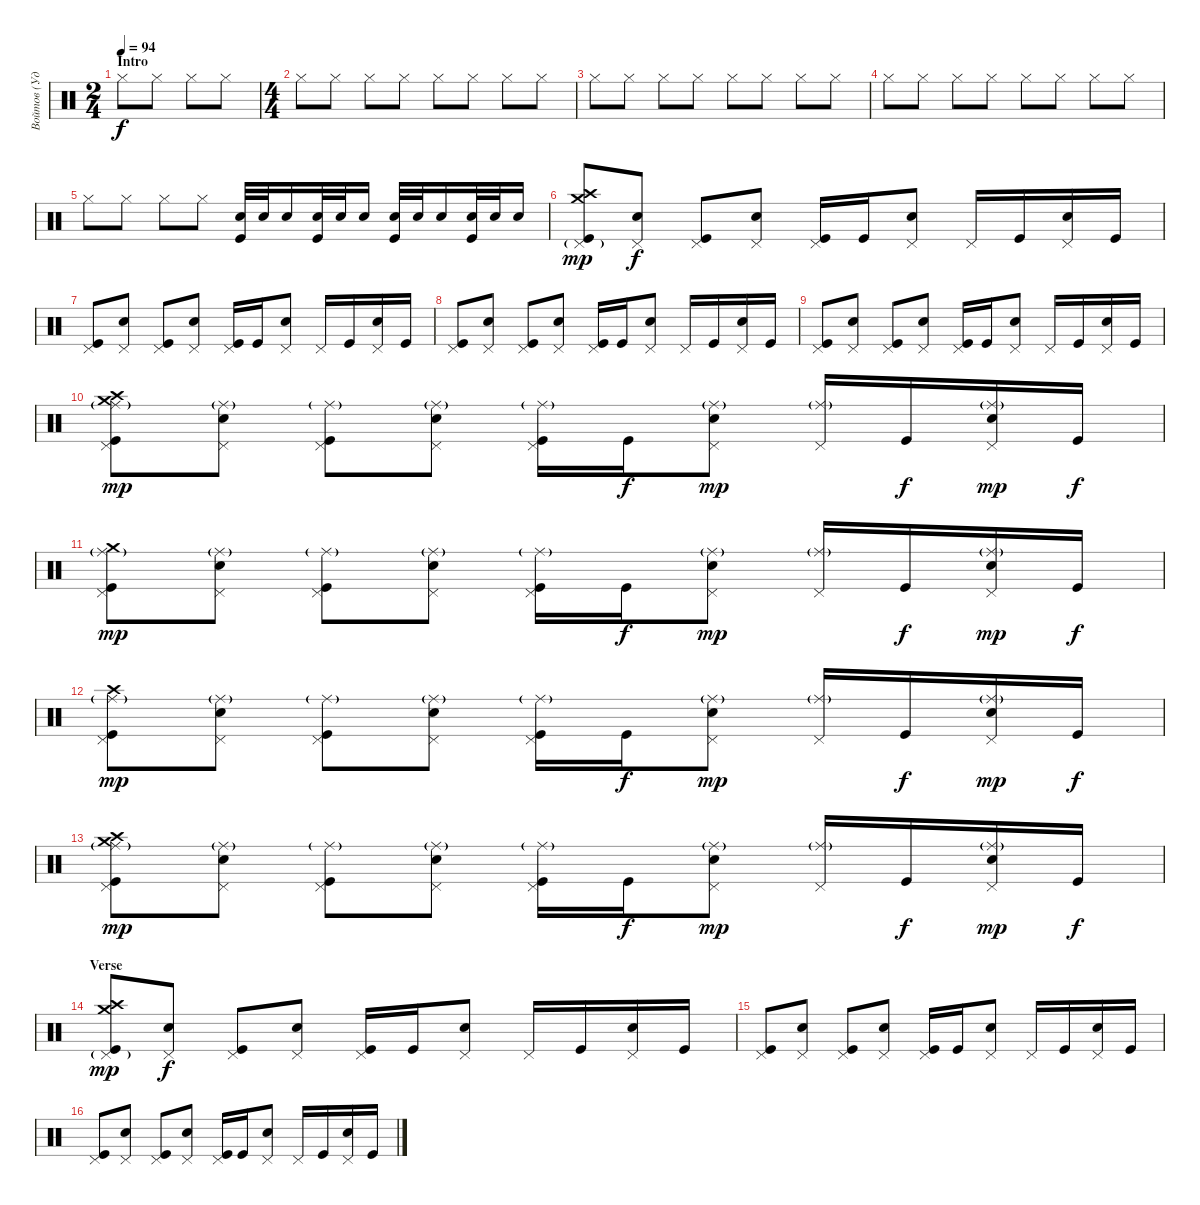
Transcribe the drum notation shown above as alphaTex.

\track ("Войтов (Ударные)" "Войтов (Уд") {instrument percussion}
\staff {score}
\articulation defaults
\ts (2 4)
\section ("" "Intro")
\tempo 94
\clef neutral
\ks c "Hi-Hat (closed)".8{dy f} "Hi-Hat (closed)".8 "Hi-Hat (closed)".8 "Hi-Hat (closed)".8
|
\ts (4 4)
"Hi-Hat (closed)".8 "Hi-Hat (closed)".8 "Hi-Hat (closed)".8 "Hi-Hat (closed)".8 "Hi-Hat (closed)".8 "Hi-Hat (closed)".8 "Hi-Hat (closed)".8 "Hi-Hat (closed)".8 |
"Hi-Hat (closed)".8 "Hi-Hat (closed)".8 "Hi-Hat (closed)".8 "Hi-Hat (closed)".8 "Hi-Hat (closed)".8 "Hi-Hat (closed)".8 "Hi-Hat (closed)".8 "Hi-Hat (closed)".8 |
"Hi-Hat (closed)".8 "Hi-Hat (closed)".8 "Hi-Hat (closed)".8 "Hi-Hat (closed)".8 "Hi-Hat (closed)".8 "Hi-Hat (closed)".8 "Hi-Hat (closed)".8 "Hi-Hat (closed)".8 |
"Hi-Hat (closed)".8 "Hi-Hat (closed)".8 "Hi-Hat (closed)".8 "Hi-Hat (closed)".8 ("Electric Snare (hit)" "Kick (hit)").32 "Electric Snare (hit)".32 "Electric Snare (hit)".16 ("Electric Snare (hit)" "Kick (hit)").32 "Electric Snare (hit)".32 "Electric Snare (hit)".16 ("Electric Snare (hit)" "Kick (hit)").32 "Electric Snare (hit)".32 "Electric Snare (hit)".16 ("Electric Snare (hit)" "Kick (hit)").32 "Electric Snare (hit)".32 "Electric Snare (hit)".16 |
("Crash medium (hit)" "Crash high (hit)" "Pedal Hi-Hat (hit)"{g} "Kick (hit)").8{dy mp} ("Pedal Hi-Hat (hit)" "Electric Snare (hit)").8{dy f} ("Pedal Hi-Hat (hit)" "Kick (hit)").8 ("Pedal Hi-Hat (hit)" "Electric Snare (hit)").8 ("Pedal Hi-Hat (hit)" "Kick (hit)").16 "Kick (hit)".16 ("Pedal Hi-Hat (hit)" "Electric Snare (hit)").8 "Pedal Hi-Hat (hit)".16 "Kick (hit)".16 ("Pedal Hi-Hat (hit)" "Electric Snare (hit)").16 "Kick (hit)".16 |
("Pedal Hi-Hat (hit)" "Kick (hit)").8 ("Pedal Hi-Hat (hit)" "Electric Snare (hit)").8 ("Pedal Hi-Hat (hit)" "Kick (hit)").8 ("Pedal Hi-Hat (hit)" "Electric Snare (hit)").8 ("Pedal Hi-Hat (hit)" "Kick (hit)").16 "Kick (hit)".16 ("Pedal Hi-Hat (hit)" "Electric Snare (hit)").8 "Pedal Hi-Hat (hit)".16 "Kick (hit)".16 ("Pedal Hi-Hat (hit)" "Electric Snare (hit)").16 "Kick (hit)".16 |
("Pedal Hi-Hat (hit)" "Kick (hit)").8 ("Pedal Hi-Hat (hit)" "Electric Snare (hit)").8 ("Pedal Hi-Hat (hit)" "Kick (hit)").8 ("Pedal Hi-Hat (hit)" "Electric Snare (hit)").8 ("Pedal Hi-Hat (hit)" "Kick (hit)").16 "Kick (hit)".16 ("Pedal Hi-Hat (hit)" "Electric Snare (hit)").8 "Pedal Hi-Hat (hit)".16 "Kick (hit)".16 ("Pedal Hi-Hat (hit)" "Electric Snare (hit)").16 "Kick (hit)".16 |
("Pedal Hi-Hat (hit)" "Kick (hit)").8 ("Pedal Hi-Hat (hit)" "Electric Snare (hit)").8 ("Pedal Hi-Hat (hit)" "Kick (hit)").8 ("Pedal Hi-Hat (hit)" "Electric Snare (hit)").8 ("Pedal Hi-Hat (hit)" "Kick (hit)").16 "Kick (hit)".16 ("Pedal Hi-Hat (hit)" "Electric Snare (hit)").8 "Pedal Hi-Hat (hit)".16 "Kick (hit)".16 ("Pedal Hi-Hat (hit)" "Electric Snare (hit)").16 "Kick (hit)".16 |
("Crash high (hit)" "Crash medium (hit)" "Ride (middle)"{g} "Pedal Hi-Hat (hit)" "Kick (hit)").8{dy mp} ("Ride (middle)"{g} "Pedal Hi-Hat (hit)" "Electric Snare (hit)").8 ("Ride (middle)"{g} "Pedal Hi-Hat (hit)" "Kick (hit)").8 ("Ride (middle)"{g} "Pedal Hi-Hat (hit)" "Electric Snare (hit)").8 ("Ride (middle)"{g} "Pedal Hi-Hat (hit)" "Kick (hit)").16 "Kick (hit)".16{dy f} ("Ride (middle)"{g} "Pedal Hi-Hat (hit)" "Electric Snare (hit)").8{dy mp} ("Ride (middle)"{g} "Pedal Hi-Hat (hit)").16 "Kick (hit)".16{dy f} ("Ride (middle)"{g} "Pedal Hi-Hat (hit)" "Electric Snare (hit)").16{dy mp} "Kick (hit)".16{dy f} |
("Crash medium (hit)" "Ride (middle)"{g} "Pedal Hi-Hat (hit)" "Kick (hit)").8{dy mp} ("Ride (middle)"{g} "Pedal Hi-Hat (hit)" "Electric Snare (hit)").8 ("Ride (middle)"{g} "Pedal Hi-Hat (hit)" "Kick (hit)").8 ("Ride (middle)"{g} "Pedal Hi-Hat (hit)" "Electric Snare (hit)").8 ("Ride (middle)"{g} "Pedal Hi-Hat (hit)" "Kick (hit)").16 "Kick (hit)".16{dy f} ("Ride (middle)"{g} "Pedal Hi-Hat (hit)" "Electric Snare (hit)").8{dy mp} ("Ride (middle)"{g} "Pedal Hi-Hat (hit)").16 "Kick (hit)".16{dy f} ("Ride (middle)"{g} "Pedal Hi-Hat (hit)" "Electric Snare (hit)").16{dy mp} "Kick (hit)".16{dy f} |
("Crash high (hit)" "Ride (middle)"{g} "Pedal Hi-Hat (hit)" "Kick (hit)").8{dy mp} ("Ride (middle)"{g} "Pedal Hi-Hat (hit)" "Electric Snare (hit)").8 ("Ride (middle)"{g} "Pedal Hi-Hat (hit)" "Kick (hit)").8 ("Ride (middle)"{g} "Pedal Hi-Hat (hit)" "Electric Snare (hit)").8 ("Ride (middle)"{g} "Pedal Hi-Hat (hit)" "Kick (hit)").16 "Kick (hit)".16{dy f} ("Ride (middle)"{g} "Pedal Hi-Hat (hit)" "Electric Snare (hit)").8{dy mp} ("Ride (middle)"{g} "Pedal Hi-Hat (hit)").16 "Kick (hit)".16{dy f} ("Ride (middle)"{g} "Pedal Hi-Hat (hit)" "Electric Snare (hit)").16{dy mp} "Kick (hit)".16{dy f} |
("Crash high (hit)" "Crash medium (hit)" "Ride (middle)"{g} "Pedal Hi-Hat (hit)" "Kick (hit)").8{dy mp} ("Ride (middle)"{g} "Pedal Hi-Hat (hit)" "Electric Snare (hit)").8 ("Ride (middle)"{g} "Pedal Hi-Hat (hit)" "Kick (hit)").8 ("Ride (middle)"{g} "Pedal Hi-Hat (hit)" "Electric Snare (hit)").8 ("Ride (middle)"{g} "Pedal Hi-Hat (hit)" "Kick (hit)").16 "Kick (hit)".16{dy f} ("Ride (middle)"{g} "Pedal Hi-Hat (hit)" "Electric Snare (hit)").8{dy mp} ("Ride (middle)"{g} "Pedal Hi-Hat (hit)").16 "Kick (hit)".16{dy f} ("Ride (middle)"{g} "Pedal Hi-Hat (hit)" "Electric Snare (hit)").16{dy mp} "Kick (hit)".16{dy f} |
\section ("" "Verse")
("Crash high (hit)" "Crash medium (hit)" "Pedal Hi-Hat (hit)"{g} "Kick (hit)").8{dy mp} ("Pedal Hi-Hat (hit)" "Electric Snare (hit)").8{dy f} ("Pedal Hi-Hat (hit)" "Kick (hit)").8 ("Pedal Hi-Hat (hit)" "Electric Snare (hit)").8 ("Pedal Hi-Hat (hit)" "Kick (hit)").16 "Kick (hit)".16 ("Pedal Hi-Hat (hit)" "Electric Snare (hit)").8 "Pedal Hi-Hat (hit)".16 "Kick (hit)".16 ("Pedal Hi-Hat (hit)" "Electric Snare (hit)").16 "Kick (hit)".16 |
("Pedal Hi-Hat (hit)" "Kick (hit)").8 ("Pedal Hi-Hat (hit)" "Electric Snare (hit)").8 ("Pedal Hi-Hat (hit)" "Kick (hit)").8 ("Pedal Hi-Hat (hit)" "Electric Snare (hit)").8 ("Pedal Hi-Hat (hit)" "Kick (hit)").16 "Kick (hit)".16 ("Pedal Hi-Hat (hit)" "Electric Snare (hit)").8 "Pedal Hi-Hat (hit)".16 "Kick (hit)".16 ("Pedal Hi-Hat (hit)" "Electric Snare (hit)").16 "Kick (hit)".16 |
("Pedal Hi-Hat (hit)" "Kick (hit)").8 ("Pedal Hi-Hat (hit)" "Electric Snare (hit)").8 ("Pedal Hi-Hat (hit)" "Kick (hit)").8 ("Pedal Hi-Hat (hit)" "Electric Snare (hit)").8 ("Pedal Hi-Hat (hit)" "Kick (hit)").16 "Kick (hit)".16 ("Pedal Hi-Hat (hit)" "Electric Snare (hit)").8 "Pedal Hi-Hat (hit)".16 "Kick (hit)".16 ("Pedal Hi-Hat (hit)" "Electric Snare (hit)").16 "Kick (hit)".16
